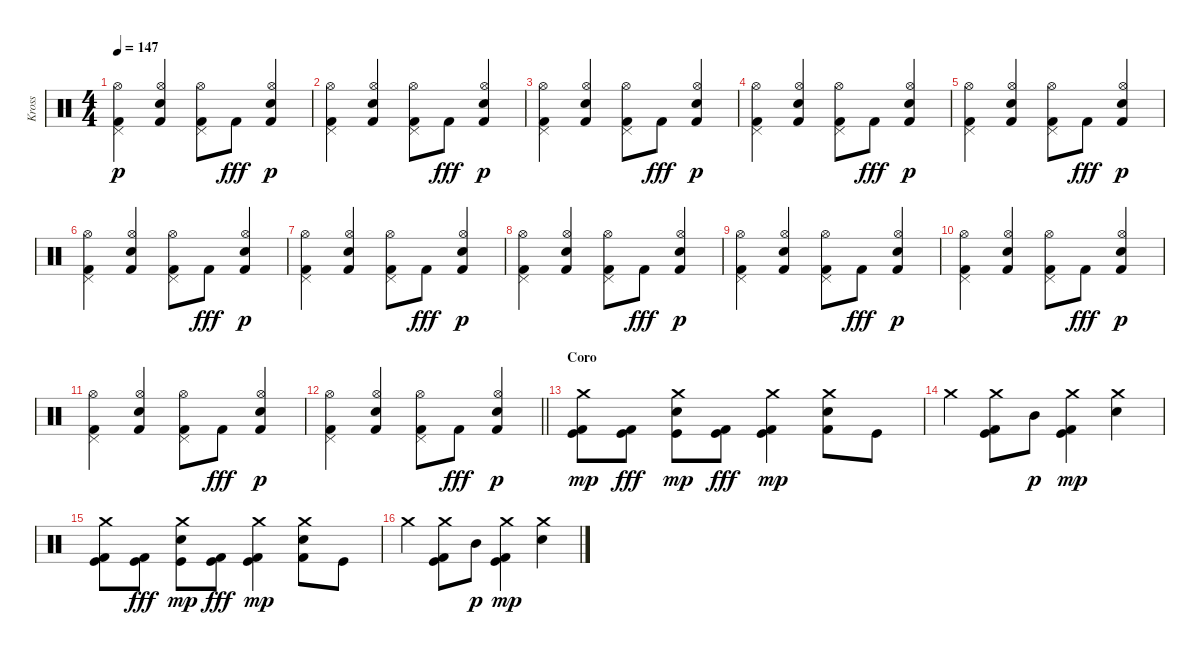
\track ("Kross" "Kross") {instrument percussion}
\staff {score}
\articulation defaults
\ts (4 4)
\tempo 147
\clef neutral
\ks c
("Kick (hit) 2" "Pedal Hi-Hat (hit)" "Hi-Hat (open)").4{dy p} ("Kick (hit) 2" "Snare (hit) 2" "Hi-Hat (open)").4 ("Kick (hit) 2" "Pedal Hi-Hat (hit)" "Hi-Hat (open)").8 "Kick (hit) 2".8{dy fff} ("Kick (hit) 2" "Snare (hit) 2" "Hi-Hat (open)").4{dy p} |
("Kick (hit) 2" "Pedal Hi-Hat (hit)" "Hi-Hat (open)").4 ("Kick (hit) 2" "Snare (hit) 2" "Hi-Hat (open)").4 ("Kick (hit) 2" "Pedal Hi-Hat (hit)" "Hi-Hat (open)").8 "Kick (hit) 2".8{dy fff} ("Kick (hit) 2" "Snare (hit) 2" "Hi-Hat (open)").4{dy p} |
("Kick (hit) 2" "Pedal Hi-Hat (hit)" "Hi-Hat (open)").4 ("Kick (hit) 2" "Snare (hit) 2" "Hi-Hat (open)").4 ("Kick (hit) 2" "Pedal Hi-Hat (hit)" "Hi-Hat (open)").8 "Kick (hit) 2".8{dy fff} ("Kick (hit) 2" "Snare (hit) 2" "Hi-Hat (open)").4{dy p} |
("Kick (hit) 2" "Pedal Hi-Hat (hit)" "Hi-Hat (open)").4 ("Kick (hit) 2" "Snare (hit) 2" "Hi-Hat (open)").4 ("Kick (hit) 2" "Pedal Hi-Hat (hit)" "Hi-Hat (open)").8 "Kick (hit) 2".8{dy fff} ("Kick (hit) 2" "Snare (hit) 2" "Hi-Hat (open)").4{dy p} |
("Kick (hit) 2" "Pedal Hi-Hat (hit)" "Hi-Hat (open)").4 ("Kick (hit) 2" "Snare (hit) 2" "Hi-Hat (open)").4 ("Kick (hit) 2" "Pedal Hi-Hat (hit)" "Hi-Hat (open)").8 "Kick (hit) 2".8{dy fff} ("Kick (hit) 2" "Snare (hit) 2" "Hi-Hat (open)").4{dy p} |
("Kick (hit) 2" "Pedal Hi-Hat (hit)" "Hi-Hat (open)").4 ("Kick (hit) 2" "Snare (hit) 2" "Hi-Hat (open)").4 ("Kick (hit) 2" "Pedal Hi-Hat (hit)" "Hi-Hat (open)").8 "Kick (hit) 2".8{dy fff} ("Kick (hit) 2" "Snare (hit) 2" "Hi-Hat (open)").4{dy p} |
("Kick (hit) 2" "Pedal Hi-Hat (hit)" "Hi-Hat (open)").4 ("Kick (hit) 2" "Snare (hit) 2" "Hi-Hat (open)").4 ("Kick (hit) 2" "Pedal Hi-Hat (hit)" "Hi-Hat (open)").8 "Kick (hit) 2".8{dy fff} ("Kick (hit) 2" "Snare (hit) 2" "Hi-Hat (open)").4{dy p} |
("Kick (hit) 2" "Pedal Hi-Hat (hit)" "Hi-Hat (open)").4 ("Kick (hit) 2" "Snare (hit) 2" "Hi-Hat (open)").4 ("Kick (hit) 2" "Pedal Hi-Hat (hit)" "Hi-Hat (open)").8 "Kick (hit) 2".8{dy fff} ("Kick (hit) 2" "Snare (hit) 2" "Hi-Hat (open)").4{dy p} |
("Kick (hit) 2" "Pedal Hi-Hat (hit)" "Hi-Hat (open)").4 ("Kick (hit) 2" "Snare (hit) 2" "Hi-Hat (open)").4 ("Kick (hit) 2" "Pedal Hi-Hat (hit)" "Hi-Hat (open)").8 "Kick (hit) 2".8{dy fff} ("Kick (hit) 2" "Snare (hit) 2" "Hi-Hat (open)").4{dy p} |
("Kick (hit) 2" "Pedal Hi-Hat (hit)" "Hi-Hat (open)").4 ("Kick (hit) 2" "Snare (hit) 2" "Hi-Hat (open)").4 ("Kick (hit) 2" "Pedal Hi-Hat (hit)" "Hi-Hat (open)").8 "Kick (hit) 2".8{dy fff} ("Kick (hit) 2" "Snare (hit) 2" "Hi-Hat (open)").4{dy p} |
("Kick (hit) 2" "Pedal Hi-Hat (hit)" "Hi-Hat (open)").4 ("Kick (hit) 2" "Snare (hit) 2" "Hi-Hat (open)").4 ("Kick (hit) 2" "Pedal Hi-Hat (hit)" "Hi-Hat (open)").8 "Kick (hit) 2".8{dy fff} ("Kick (hit) 2" "Snare (hit) 2" "Hi-Hat (open)").4{dy p} |
\barLineRight lightlight
("Kick (hit) 2" "Pedal Hi-Hat (hit)" "Hi-Hat (open)").4 ("Kick (hit) 2" "Snare (hit) 2" "Hi-Hat (open)").4 ("Kick (hit) 2" "Pedal Hi-Hat (hit)" "Hi-Hat (open)").8 "Kick (hit) 2".8{dy fff} ("Kick (hit) 2" "Snare (hit) 2" "Hi-Hat (open)").4{dy p} |
\section ("" "Coro")
("Kick (hit) 2" "Kick (hit)" "Crash medium (hit)").8{dy mp} ("Kick (hit) 2" "Kick (hit)").8{dy fff} ("Snare (hit) 2" "Kick (hit)" "Crash medium (hit)").8{dy mp} ("Kick (hit) 2" "Kick (hit)").8{dy fff} ("Kick (hit) 2" "Kick (hit)" "Crash medium (hit)").4{dy mp} ("Snare (hit) 2" "Kick (hit) 2" "Crash medium (hit)").8 "Kick (hit)".8 |
"Crash medium (hit)".4 ("Kick (hit) 2" "Kick (hit)" "Crash medium (hit)").8 "Mid Tom (hit)".8{dy p} ("Kick (hit) 2" "Kick (hit)" "Crash medium (hit)").4{dy mp} ("Snare (hit) 2" "Crash medium (hit)").4 |
("Kick (hit) 2" "Kick (hit)" "Crash medium (hit)").8 ("Kick (hit) 2" "Kick (hit)").8{dy fff} ("Snare (hit) 2" "Kick (hit)" "Crash medium (hit)").8{dy mp} ("Kick (hit) 2" "Kick (hit)").8{dy fff} ("Kick (hit) 2" "Kick (hit)" "Crash medium (hit)").4{dy mp} ("Snare (hit) 2" "Kick (hit) 2" "Crash medium (hit)").8 "Kick (hit)".8 |
"Crash medium (hit)".4 ("Kick (hit) 2" "Kick (hit)" "Crash medium (hit)").8 "Mid Tom (hit)".8{dy p} ("Kick (hit) 2" "Kick (hit)" "Crash medium (hit)").4{dy mp} ("Snare (hit) 2" "Crash medium (hit)").4
